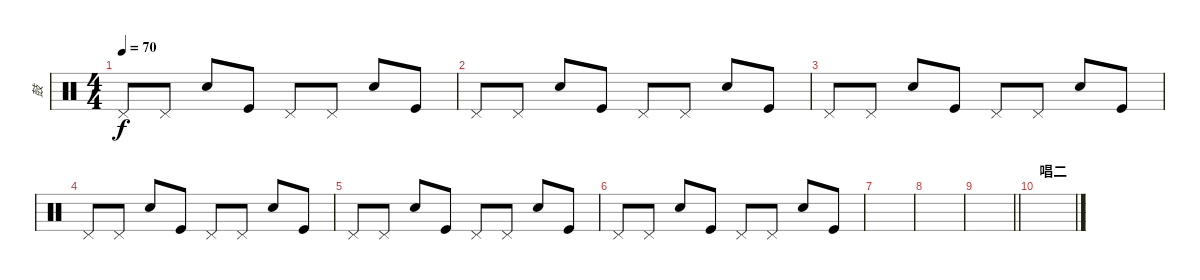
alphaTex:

\track ("鼓" "鼓") {instrument percussion}
\staff {score}
\articulation defaults
\ts (4 4)
\tempo 70
\clef neutral
\ks c "Pedal Hi-Hat (hit)".8{dy f} "Pedal Hi-Hat (hit)".8 "Snare (hit) 2".8 "Kick (hit)".8 "Pedal Hi-Hat (hit)".8 "Pedal Hi-Hat (hit)".8 "Snare (hit) 2".8 "Kick (hit)".8
|
"Pedal Hi-Hat (hit)".8 "Pedal Hi-Hat (hit)".8 "Snare (hit) 2".8 "Kick (hit)".8 "Pedal Hi-Hat (hit)".8 "Pedal Hi-Hat (hit)".8 "Snare (hit) 2".8 "Kick (hit)".8 |
"Pedal Hi-Hat (hit)".8 "Pedal Hi-Hat (hit)".8 "Snare (hit) 2".8 "Kick (hit)".8 "Pedal Hi-Hat (hit)".8 "Pedal Hi-Hat (hit)".8 "Snare (hit) 2".8 "Kick (hit)".8 |
"Pedal Hi-Hat (hit)".8 "Pedal Hi-Hat (hit)".8 "Snare (hit) 2".8 "Kick (hit)".8 "Pedal Hi-Hat (hit)".8 "Pedal Hi-Hat (hit)".8 "Snare (hit) 2".8 "Kick (hit)".8 |
"Pedal Hi-Hat (hit)".8 "Pedal Hi-Hat (hit)".8 "Snare (hit) 2".8 "Kick (hit)".8 "Pedal Hi-Hat (hit)".8 "Pedal Hi-Hat (hit)".8 "Snare (hit) 2".8 "Kick (hit)".8 |
"Pedal Hi-Hat (hit)".8 "Pedal Hi-Hat (hit)".8 "Snare (hit) 2".8 "Kick (hit)".8 "Pedal Hi-Hat (hit)".8 "Pedal Hi-Hat (hit)".8 "Snare (hit) 2".8 "Kick (hit)".8 |
|
|
\barLineRight lightlight
|
\section ("" "唱二")
